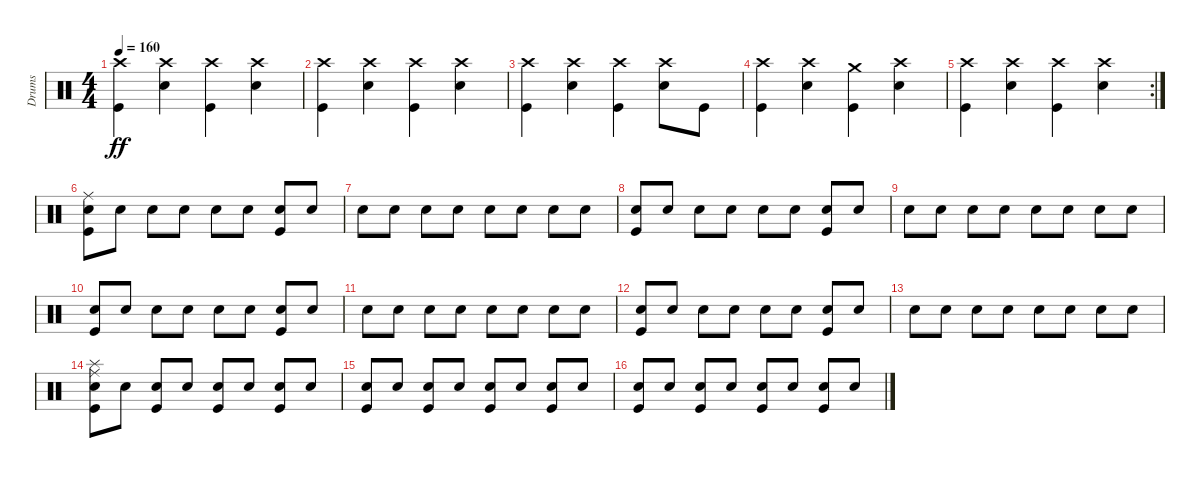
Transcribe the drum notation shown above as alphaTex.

\track ("Drums" "Drums") {instrument percussion}
\staff {score}
\articulation defaults
\ts (4 4)
\tempo 160
\clef neutral
\ks c
("Crash high (hit)" "Kick (hit)").4{dy ff} ("Crash high (hit)" "Snare (hit) 2").4 ("Crash high (hit)" "Kick (hit)").4 ("Crash high (hit)" "Snare (hit) 2").4 |
("Crash high (hit)" "Kick (hit)").4 ("Crash high (hit)" "Snare (hit) 2").4 ("Crash high (hit)" "Kick (hit)").4 ("Crash high (hit)" "Snare (hit) 2").4 |
("Crash high (hit)" "Kick (hit)").4 ("Crash high (hit)" "Snare (hit) 2").4 ("Crash high (hit)" "Kick (hit)").4 ("Crash high (hit)" "Snare (hit) 2").8 "Kick (hit)".8 |
("Crash high (hit)" "Kick (hit)").4 ("Crash high (hit)" "Snare (hit) 2").4 ("Crash medium (hit)" "Kick (hit)").4 ("Crash high (hit)" "Snare (hit) 2").4 |
\rc 2
("Crash high (hit)" "Kick (hit)").4 ("Crash high (hit)" "Snare (hit) 2").4 ("Crash high (hit)" "Kick (hit)").4 ("Crash high (hit)" "Snare (hit) 2").4 |
("Ride (middle)" "Snare (hit) 2" "Kick (hit)").8 "Snare (hit) 2".8 "Snare (hit) 2".8 "Snare (hit) 2".8 "Snare (hit) 2".8 "Snare (hit) 2".8 ("Snare (hit) 2" "Kick (hit)").8 "Snare (hit) 2".8 |
"Snare (hit) 2".8 "Snare (hit) 2".8 "Snare (hit) 2".8 "Snare (hit) 2".8 "Snare (hit) 2".8 "Snare (hit) 2".8 "Snare (hit) 2".8 "Snare (hit) 2".8 |
("Snare (hit) 2" "Kick (hit)").8 "Snare (hit) 2".8 "Snare (hit) 2".8 "Snare (hit) 2".8 "Snare (hit) 2".8 "Snare (hit) 2".8 ("Snare (hit) 2" "Kick (hit)").8 "Snare (hit) 2".8 |
"Snare (hit) 2".8 "Snare (hit) 2".8 "Snare (hit) 2".8 "Snare (hit) 2".8 "Snare (hit) 2".8 "Snare (hit) 2".8 "Snare (hit) 2".8 "Snare (hit) 2".8 |
("Snare (hit) 2" "Kick (hit)").8 "Snare (hit) 2".8 "Snare (hit) 2".8 "Snare (hit) 2".8 "Snare (hit) 2".8 "Snare (hit) 2".8 ("Snare (hit) 2" "Kick (hit)").8 "Snare (hit) 2".8 |
"Snare (hit) 2".8 "Snare (hit) 2".8 "Snare (hit) 2".8 "Snare (hit) 2".8 "Snare (hit) 2".8 "Snare (hit) 2".8 "Snare (hit) 2".8 "Snare (hit) 2".8 |
("Snare (hit) 2" "Kick (hit)").8 "Snare (hit) 2".8 "Snare (hit) 2".8 "Snare (hit) 2".8 "Snare (hit) 2".8 "Snare (hit) 2".8 ("Snare (hit) 2" "Kick (hit)").8 "Snare (hit) 2".8 |
"Snare (hit) 2".8 "Snare (hit) 2".8 "Snare (hit) 2".8 "Snare (hit) 2".8 "Snare (hit) 2".8 "Snare (hit) 2".8 "Snare (hit) 2".8 "Snare (hit) 2".8 |
("Ride (middle)" "Splash (hit)" "Snare (hit) 2" "Kick (hit)").8 "Snare (hit) 2".8 ("Snare (hit) 2" "Kick (hit)").8 "Snare (hit) 2".8 ("Snare (hit) 2" "Kick (hit)").8 "Snare (hit) 2".8 ("Snare (hit) 2" "Kick (hit)").8 "Snare (hit) 2".8 |
("Snare (hit) 2" "Kick (hit)").8 "Snare (hit) 2".8 ("Snare (hit) 2" "Kick (hit)").8 "Snare (hit) 2".8 ("Snare (hit) 2" "Kick (hit)").8 "Snare (hit) 2".8 ("Snare (hit) 2" "Kick (hit)").8 "Snare (hit) 2".8 |
("Snare (hit) 2" "Kick (hit)").8 "Snare (hit) 2".8 ("Snare (hit) 2" "Kick (hit)").8 "Snare (hit) 2".8 ("Snare (hit) 2" "Kick (hit)").8 "Snare (hit) 2".8 ("Snare (hit) 2" "Kick (hit)").8 "Snare (hit) 2".8
